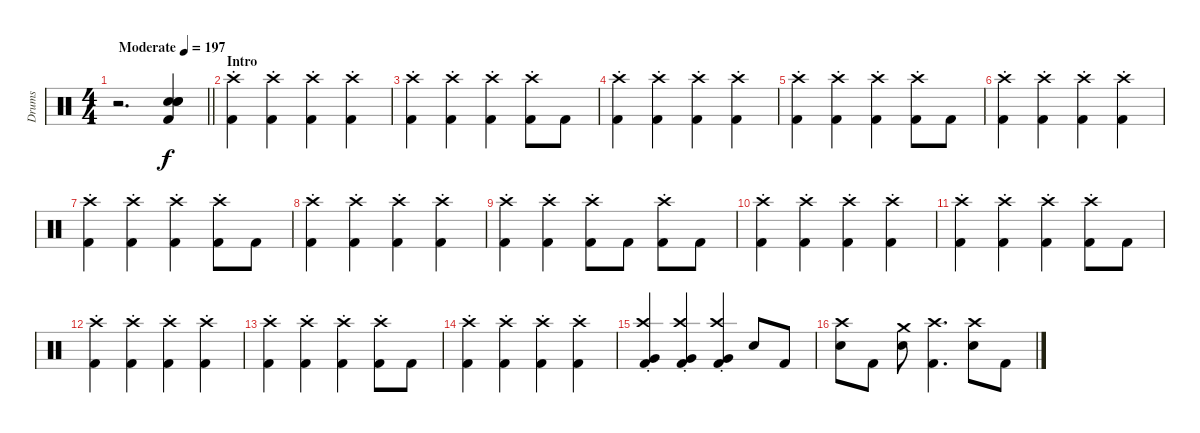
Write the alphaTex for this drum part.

\track ("Drums" "Drums") {instrument percussion}
\staff {score}
\articulation defaults
\ts (4 4)
\tempo (197 "Moderate")
\clef neutral
\barLineRight lightlight
\ks c
r.2{d dy f} ("Kick (hit) 2" "Snare (hit) 2" "Snare (hit) 2" "Snare (hit) 2").4 |
\section ("" "Intro")
("Crash high (hit)"{st} "Kick (hit) 2").4 ("Crash high (hit)"{st} "Kick (hit) 2").4 ("Crash high (hit)"{st} "Kick (hit) 2").4 ("Crash high (hit)"{st} "Kick (hit) 2").4 |
("Crash high (hit)"{st} "Kick (hit) 2").4 ("Crash high (hit)"{st} "Kick (hit) 2").4 ("Crash high (hit)"{st} "Kick (hit) 2").4 ("Crash high (hit)"{st} "Kick (hit) 2").8 "Kick (hit) 2".8 |
("Crash high (hit)"{st} "Kick (hit) 2").4 ("Crash high (hit)"{st} "Kick (hit) 2").4 ("Crash high (hit)"{st} "Kick (hit) 2").4 ("Crash high (hit)"{st} "Kick (hit) 2").4 |
("Crash high (hit)"{st} "Kick (hit) 2").4 ("Crash high (hit)"{st} "Kick (hit) 2").4 ("Crash high (hit)"{st} "Kick (hit) 2").4 ("Crash high (hit)"{st} "Kick (hit) 2").8 "Kick (hit) 2".8 |
("Crash high (hit)"{st} "Kick (hit) 2").4 ("Crash high (hit)"{st} "Kick (hit) 2").4 ("Crash high (hit)"{st} "Kick (hit) 2").4 ("Crash high (hit)"{st} "Kick (hit) 2").4 |
("Crash high (hit)"{st} "Kick (hit) 2").4 ("Crash high (hit)"{st} "Kick (hit) 2").4 ("Crash high (hit)"{st} "Kick (hit) 2").4 ("Crash high (hit)"{st} "Kick (hit) 2").8 "Kick (hit) 2".8 |
("Crash high (hit)"{st} "Kick (hit) 2").4 ("Crash high (hit)"{st} "Kick (hit) 2").4 ("Crash high (hit)"{st} "Kick (hit) 2").4 ("Crash high (hit)"{st} "Kick (hit) 2").4 |
("Crash high (hit)"{st} "Kick (hit) 2").4 ("Crash high (hit)"{st} "Kick (hit) 2").4 ("Crash high (hit)"{st} "Kick (hit) 2").8 "Kick (hit) 2".8 ("Crash high (hit)"{st} "Kick (hit) 2").8 "Kick (hit) 2".8 |
("Crash high (hit)"{st} "Kick (hit) 2").4 ("Crash high (hit)"{st} "Kick (hit) 2").4 ("Crash high (hit)"{st} "Kick (hit) 2").4 ("Crash high (hit)"{st} "Kick (hit) 2").4 |
("Crash high (hit)"{st} "Kick (hit) 2").4 ("Crash high (hit)"{st} "Kick (hit) 2").4 ("Crash high (hit)"{st} "Kick (hit) 2").4 ("Crash high (hit)"{st} "Kick (hit) 2").8 "Kick (hit) 2".8 |
("Crash high (hit)"{st} "Kick (hit) 2").4 ("Crash high (hit)"{st} "Kick (hit) 2").4 ("Crash high (hit)"{st} "Kick (hit) 2").4 ("Crash high (hit)"{st} "Kick (hit) 2").4 |
("Crash high (hit)"{st} "Kick (hit) 2").4 ("Crash high (hit)"{st} "Kick (hit) 2").4 ("Crash high (hit)"{st} "Kick (hit) 2").4 ("Crash high (hit)"{st} "Kick (hit) 2").8 "Kick (hit) 2".8 |
("Crash high (hit)"{st} "Kick (hit) 2").4 ("Crash high (hit)"{st} "Kick (hit) 2").4 ("Crash high (hit)"{st} "Kick (hit) 2").4 ("Crash high (hit)"{st} "Kick (hit) 2").4 |
("Crash high (hit)"{st} "Very Low Tom (hit)" "Kick (hit) 2").4 ("Crash high (hit)"{st} "Very Low Tom (hit)" "Kick (hit) 2").4 ("Crash high (hit)"{st} "Very Low Tom (hit)" "Kick (hit) 2").4 "Electric Snare (hit)".8 "Kick (hit) 2".8 |
("Crash high (hit)" "Electric Snare (hit)").8 "Kick (hit) 2".8 ("Crash medium (hit)" "Electric Snare (hit)").8 ("Crash high (hit)" "Kick (hit) 2").4{d} ("Crash high (hit)" "Electric Snare (hit)").8 "Kick (hit) 2".8
